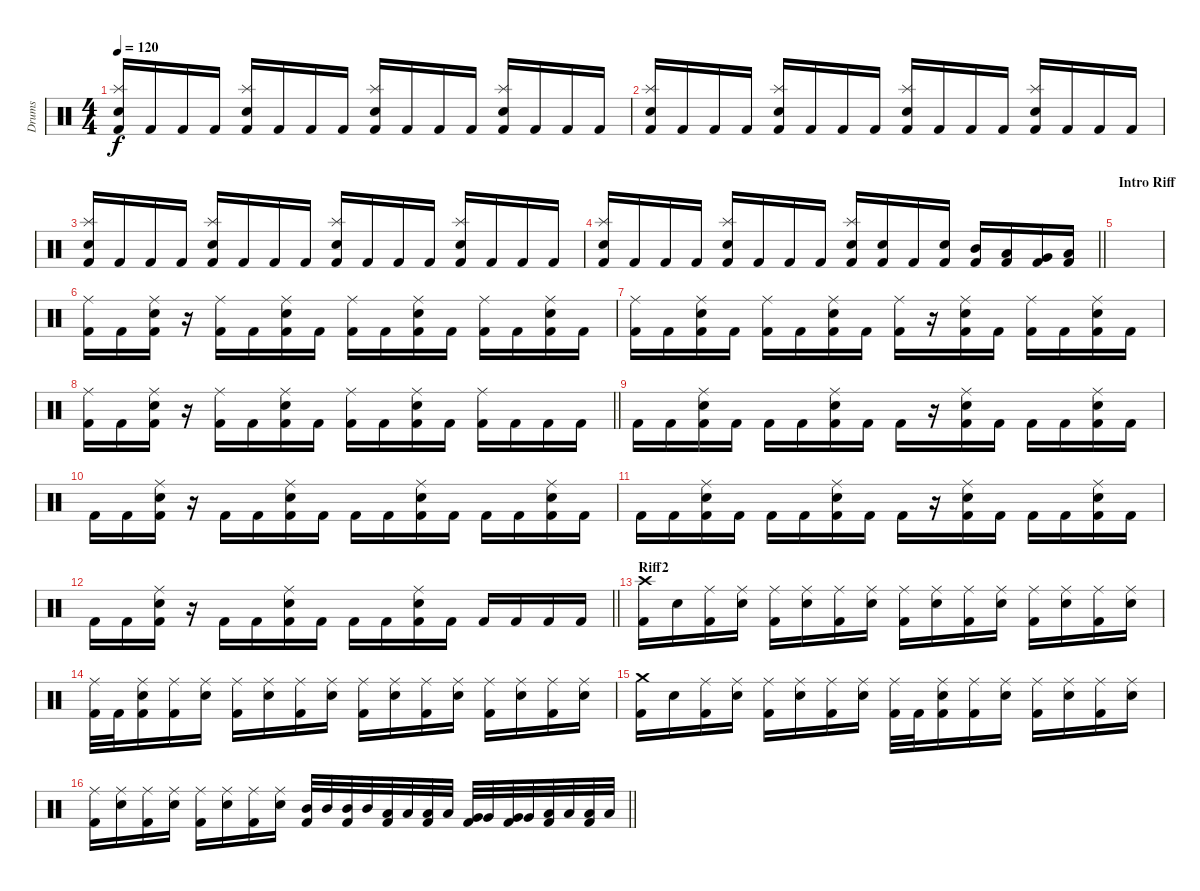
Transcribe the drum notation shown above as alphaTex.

\track ("Drums" "Drums") {instrument percussion}
\staff {score}
\articulation defaults
\ts (4 4)
\tempo 120
\clef neutral
\ks c
("Kick (hit) 2" "Splash (hit)" "Snare (hit) 2").16{dy f} "Kick (hit) 2".16 "Kick (hit) 2".16 "Kick (hit) 2".16 ("Kick (hit) 2" "Splash (hit)" "Snare (hit) 2").16 "Kick (hit) 2".16 "Kick (hit) 2".16 "Kick (hit) 2".16 ("Kick (hit) 2" "Splash (hit)" "Snare (hit) 2").16 "Kick (hit) 2".16 "Kick (hit) 2".16 "Kick (hit) 2".16 ("Kick (hit) 2" "Splash (hit)" "Snare (hit) 2").16 "Kick (hit) 2".16 "Kick (hit) 2".16 "Kick (hit) 2".16 |
("Kick (hit) 2" "Splash (hit)" "Snare (hit) 2").16 "Kick (hit) 2".16 "Kick (hit) 2".16 "Kick (hit) 2".16 ("Kick (hit) 2" "Splash (hit)" "Snare (hit) 2").16 "Kick (hit) 2".16 "Kick (hit) 2".16 "Kick (hit) 2".16 ("Kick (hit) 2" "Splash (hit)" "Snare (hit) 2").16 "Kick (hit) 2".16 "Kick (hit) 2".16 "Kick (hit) 2".16 ("Kick (hit) 2" "Splash (hit)" "Snare (hit) 2").16 "Kick (hit) 2".16 "Kick (hit) 2".16 "Kick (hit) 2".16 |
("Kick (hit) 2" "Splash (hit)" "Snare (hit) 2").16 "Kick (hit) 2".16 "Kick (hit) 2".16 "Kick (hit) 2".16 ("Kick (hit) 2" "Splash (hit)" "Snare (hit) 2").16 "Kick (hit) 2".16 "Kick (hit) 2".16 "Kick (hit) 2".16 ("Kick (hit) 2" "Splash (hit)" "Snare (hit) 2").16 "Kick (hit) 2".16 "Kick (hit) 2".16 "Kick (hit) 2".16 ("Kick (hit) 2" "Splash (hit)" "Snare (hit) 2").16 "Kick (hit) 2".16 "Kick (hit) 2".16 "Kick (hit) 2".16 |
\barLineRight lightlight
("Kick (hit) 2" "Splash (hit)" "Snare (hit) 2").16 "Kick (hit) 2".16 "Kick (hit) 2".16 "Kick (hit) 2".16 ("Kick (hit) 2" "Splash (hit)" "Snare (hit) 2").16 "Kick (hit) 2".16 "Kick (hit) 2".16 "Kick (hit) 2".16 ("Kick (hit) 2" "Splash (hit)" "Snare (hit) 2").16 ("Kick (hit) 2" "Snare (hit) 2").16 "Kick (hit) 2".16 ("Kick (hit) 2" "Snare (hit) 2").16 ("Kick (hit) 2" "Mid Tom (hit)").16 ("Kick (hit) 2" "Low Tom (hit)").16 ("Kick (hit) 2" "Very Low Tom (hit)").16 ("Kick (hit) 2" "Low Floor Tom (hit)").16 |
\section ("" "Intro Riff")
|
("Kick (hit) 2" "Ride (middle)").16 "Kick (hit) 2".16 ("Kick (hit) 2" "Ride (middle)" "Snare (hit) 2").16 r.16 ("Kick (hit) 2" "Ride (middle)").16 "Kick (hit) 2".16 ("Kick (hit) 2" "Ride (middle)" "Snare (hit) 2").16 "Kick (hit) 2".16 ("Kick (hit) 2" "Ride (middle)").16 "Kick (hit) 2".16 ("Kick (hit) 2" "Ride (middle)" "Snare (hit) 2").16 "Kick (hit) 2".16 ("Kick (hit) 2" "Ride (middle)").16 "Kick (hit) 2".16 ("Kick (hit) 2" "Ride (middle)" "Snare (hit) 2").16 "Kick (hit) 2".16 |
("Kick (hit) 2" "Ride (middle)").16 "Kick (hit) 2".16 ("Kick (hit) 2" "Ride (middle)" "Snare (hit) 2").16 "Kick (hit) 2".16 ("Kick (hit) 2" "Ride (middle)").16 "Kick (hit) 2".16 ("Kick (hit) 2" "Ride (middle)" "Snare (hit) 2").16 "Kick (hit) 2".16 ("Kick (hit) 2" "Ride (middle)").16 r.16 ("Kick (hit) 2" "Ride (middle)" "Snare (hit) 2").16 "Kick (hit) 2".16 ("Kick (hit) 2" "Ride (middle)").16 "Kick (hit) 2".16 ("Kick (hit) 2" "Ride (middle)" "Snare (hit) 2").16 "Kick (hit) 2".16 |
\barLineRight lightlight
("Kick (hit) 2" "Ride (middle)").16 "Kick (hit) 2".16 ("Kick (hit) 2" "Ride (middle)" "Snare (hit) 2").16 r.16 ("Kick (hit) 2" "Ride (middle)").16 "Kick (hit) 2".16 ("Kick (hit) 2" "Ride (middle)" "Snare (hit) 2").16 "Kick (hit) 2".16 ("Kick (hit) 2" "Ride (middle)").16 "Kick (hit) 2".16 ("Kick (hit) 2" "Ride (middle)" "Snare (hit) 2").16 "Kick (hit) 2".16 ("Kick (hit) 2" "Ride (middle)").16 "Kick (hit) 2".16 "Kick (hit) 2".16 "Kick (hit) 2".16 |
"Kick (hit) 2".16 "Kick (hit) 2".16 ("Kick (hit) 2" "Ride (middle)" "Snare (hit) 2").16 "Kick (hit) 2".16 "Kick (hit) 2".16 "Kick (hit) 2".16 ("Kick (hit) 2" "Ride (middle)" "Snare (hit) 2").16 "Kick (hit) 2".16 "Kick (hit) 2".16 r.16 ("Kick (hit) 2" "Ride (middle)" "Snare (hit) 2").16 "Kick (hit) 2".16 "Kick (hit) 2".16 "Kick (hit) 2".16 ("Kick (hit) 2" "Ride (middle)" "Snare (hit) 2").16 "Kick (hit) 2".16 |
"Kick (hit) 2".16 "Kick (hit) 2".16 ("Kick (hit) 2" "Ride (middle)" "Snare (hit) 2").16 r.16 "Kick (hit) 2".16 "Kick (hit) 2".16 ("Kick (hit) 2" "Ride (middle)" "Snare (hit) 2").16 "Kick (hit) 2".16 "Kick (hit) 2".16 "Kick (hit) 2".16 ("Kick (hit) 2" "Ride (middle)" "Snare (hit) 2").16 "Kick (hit) 2".16 "Kick (hit) 2".16 "Kick (hit) 2".16 ("Kick (hit) 2" "Ride (middle)" "Snare (hit) 2").16 "Kick (hit) 2".16 |
"Kick (hit) 2".16 "Kick (hit) 2".16 ("Kick (hit) 2" "Ride (middle)" "Snare (hit) 2").16 "Kick (hit) 2".16 "Kick (hit) 2".16 "Kick (hit) 2".16 ("Kick (hit) 2" "Ride (middle)" "Snare (hit) 2").16 "Kick (hit) 2".16 "Kick (hit) 2".16 r.16 ("Kick (hit) 2" "Ride (middle)" "Snare (hit) 2").16 "Kick (hit) 2".16 "Kick (hit) 2".16 "Kick (hit) 2".16 ("Kick (hit) 2" "Ride (middle)" "Snare (hit) 2").16 "Kick (hit) 2".16 |
\barLineRight lightlight "Kick (hit) 2".16 "Kick (hit) 2".16
("Kick (hit) 2" "Ride (middle)" "Snare (hit) 2").16 r.16 "Kick (hit) 2".16 "Kick (hit) 2".16 ("Kick (hit) 2" "Ride (middle)" "Snare (hit) 2").16 "Kick (hit) 2".16 "Kick (hit) 2".16 "Kick (hit) 2".16 ("Kick (hit) 2" "Ride (middle)" "Snare (hit) 2").16 "Kick (hit) 2".16 "Kick (hit) 2".16 "Kick (hit) 2".16 "Kick (hit) 2".16 "Kick (hit) 2".16 |
\section ("" "Riff2")
("Kick (hit) 2" "Crash high (hit)").16 "Snare (hit) 2".16 ("Kick (hit) 2" "Ride (middle)").16 ("Ride (middle)" "Snare (hit) 2").16 ("Kick (hit) 2" "Ride (middle)").16 ("Ride (middle)" "Snare (hit) 2").16 ("Kick (hit) 2" "Ride (middle)").16 ("Ride (middle)" "Snare (hit) 2").16 ("Kick (hit) 2" "Ride (middle)").16 ("Ride (middle)" "Snare (hit) 2").16 ("Kick (hit) 2" "Ride (middle)").16 ("Ride (middle)" "Snare (hit) 2").16 ("Kick (hit) 2" "Ride (middle)").16 ("Ride (middle)" "Snare (hit) 2").16 ("Kick (hit) 2" "Ride (middle)").16 ("Ride (middle)" "Snare (hit) 2").16 |
("Kick (hit) 2" "Ride (middle)").32 "Kick (hit) 2".32 ("Kick (hit) 2" "Ride (middle)" "Snare (hit) 2").16 ("Kick (hit) 2" "Ride (middle)").16 ("Ride (middle)" "Snare (hit) 2").16 ("Kick (hit) 2" "Ride (middle)").16 ("Ride (middle)" "Snare (hit) 2").16 ("Kick (hit) 2" "Ride (middle)").16 ("Ride (middle)" "Snare (hit) 2").16 ("Kick (hit) 2" "Ride (middle)").16 ("Ride (middle)" "Snare (hit) 2").16 ("Kick (hit) 2" "Ride (middle)").16 ("Ride (middle)" "Snare (hit) 2").16 ("Kick (hit) 2" "Ride (middle)").16 ("Ride (middle)" "Snare (hit) 2").16 ("Kick (hit) 2" "Ride (middle)").16 ("Ride (middle)" "Snare (hit) 2").16 |
("Kick (hit) 2" "Crash medium (hit)").16 "Snare (hit) 2".16 ("Kick (hit) 2" "Ride (middle)").16 ("Ride (middle)" "Snare (hit) 2").16 ("Kick (hit) 2" "Ride (middle)").16 ("Ride (middle)" "Snare (hit) 2").16 ("Kick (hit) 2" "Ride (middle)").16 ("Ride (middle)" "Snare (hit) 2").16 ("Kick (hit) 2" "Ride (middle)").32 "Kick (hit) 2".32 ("Kick (hit) 2" "Ride (middle)" "Snare (hit) 2").16 ("Kick (hit) 2" "Ride (middle)").16 ("Ride (middle)" "Snare (hit) 2").16 ("Kick (hit) 2" "Ride (middle)").16 ("Ride (middle)" "Snare (hit) 2").16 ("Kick (hit) 2" "Ride (middle)").16 ("Ride (middle)" "Snare (hit) 2").16 |
\barLineRight lightlight
("Kick (hit) 2" "Ride (middle)").16 ("Ride (middle)" "Snare (hit) 2").16 ("Kick (hit) 2" "Ride (middle)").16 ("Ride (middle)" "Snare (hit) 2").16 ("Kick (hit) 2" "Ride (middle)").16 ("Ride (middle)" "Snare (hit) 2").16 ("Kick (hit) 2" "Ride (middle)").16 ("Ride (middle)" "Snare (hit) 2").16 ("Kick (hit) 2" "Mid Tom (hit)").32 "Mid Tom (hit)".32 ("Kick (hit) 2" "Mid Tom (hit)").32 "Mid Tom (hit)".32 ("Kick (hit) 2" "Low Tom (hit)").32 "Low Tom (hit)".32 ("Kick (hit) 2" "Low Tom (hit)").32 "Low Tom (hit)".32 ("Kick (hit) 2" "Very Low Tom (hit)").32 "Very Low Tom (hit)".32 ("Kick (hit) 2" "Very Low Tom (hit)").32 "Very Low Tom (hit)".32 ("Kick (hit) 2" "Low Floor Tom (hit)").32 "Low Floor Tom (hit)".32 ("Kick (hit) 2" "Low Floor Tom (hit)").32 "Low Floor Tom (hit)".32
